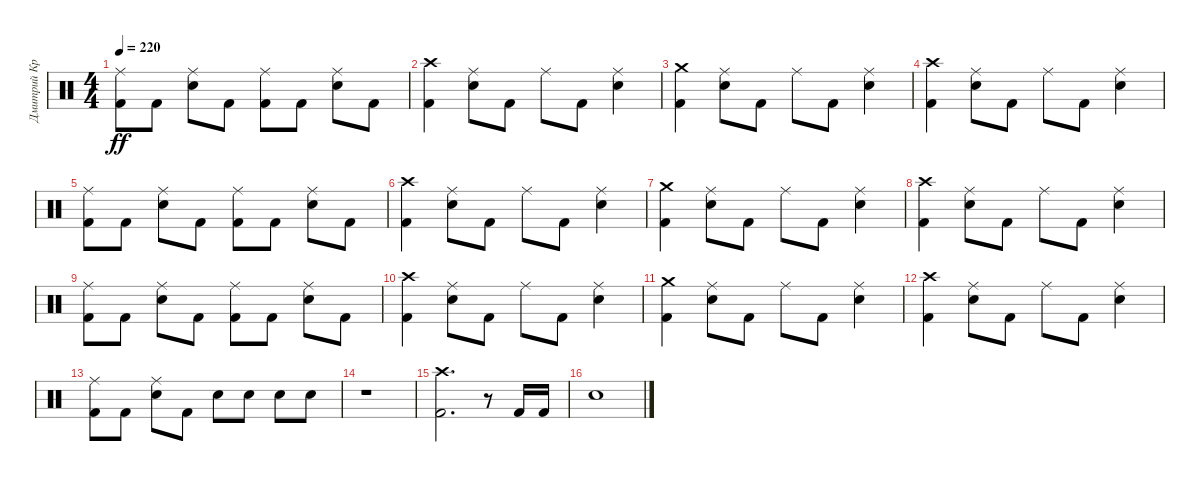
\track ("Дмитрий Кривенков" "Дмитрий Кр") {instrument percussion}
\staff {score}
\articulation defaults
\ts (4 4)
\tempo 220
\clef neutral
\ks c
("Ride (middle)" "Kick (hit) 2").8{dy ff} "Kick (hit) 2".8 ("Ride (middle)" "Snare (hit) 2").8 "Kick (hit) 2".8 ("Ride (middle)" "Kick (hit) 2").8 "Kick (hit) 2".8 ("Ride (middle)" "Snare (hit) 2").8 "Kick (hit) 2".8 |
("Kick (hit) 2" "Crash high (hit)").4 ("Ride (middle)" "Snare (hit) 2").8 "Kick (hit) 2".8 "Ride (middle)".8 "Kick (hit) 2".8 ("Ride (middle)" "Snare (hit) 2").4 |
("Crash medium (hit)" "Kick (hit) 2").4 ("Snare (hit) 2" "Ride (middle)").8 "Kick (hit) 2".8 "Ride (middle)".8 "Kick (hit) 2".8 ("Snare (hit) 2" "Ride (middle)").4 |
("Kick (hit) 2" "Crash high (hit)").4 ("Ride (middle)" "Snare (hit) 2").8 "Kick (hit) 2".8 "Ride (middle)".8 "Kick (hit) 2".8 ("Ride (middle)" "Snare (hit) 2").4 |
("Ride (middle)" "Kick (hit) 2").8 "Kick (hit) 2".8 ("Ride (middle)" "Snare (hit) 2").8 "Kick (hit) 2".8 ("Ride (middle)" "Kick (hit) 2").8 "Kick (hit) 2".8 ("Ride (middle)" "Snare (hit) 2").8 "Kick (hit) 2".8 |
("Kick (hit) 2" "Crash high (hit)").4 ("Ride (middle)" "Snare (hit) 2").8 "Kick (hit) 2".8 "Ride (middle)".8 "Kick (hit) 2".8 ("Ride (middle)" "Snare (hit) 2").4 |
("Crash medium (hit)" "Kick (hit) 2").4 ("Snare (hit) 2" "Ride (middle)").8 "Kick (hit) 2".8 "Ride (middle)".8 "Kick (hit) 2".8 ("Snare (hit) 2" "Ride (middle)").4 |
("Kick (hit) 2" "Crash high (hit)").4 ("Ride (middle)" "Snare (hit) 2").8 "Kick (hit) 2".8 "Ride (middle)".8 "Kick (hit) 2".8 ("Ride (middle)" "Snare (hit) 2").4 |
("Ride (middle)" "Kick (hit) 2").8 "Kick (hit) 2".8 ("Ride (middle)" "Snare (hit) 2").8 "Kick (hit) 2".8 ("Ride (middle)" "Kick (hit) 2").8 "Kick (hit) 2".8 ("Ride (middle)" "Snare (hit) 2").8 "Kick (hit) 2".8 |
("Kick (hit) 2" "Crash high (hit)").4 ("Ride (middle)" "Snare (hit) 2").8 "Kick (hit) 2".8 "Ride (middle)".8 "Kick (hit) 2".8 ("Ride (middle)" "Snare (hit) 2").4 |
("Crash medium (hit)" "Kick (hit) 2").4 ("Snare (hit) 2" "Ride (middle)").8 "Kick (hit) 2".8 "Ride (middle)".8 "Kick (hit) 2".8 ("Snare (hit) 2" "Ride (middle)").4 |
("Kick (hit) 2" "Crash high (hit)").4 ("Ride (middle)" "Snare (hit) 2").8 "Kick (hit) 2".8 "Ride (middle)".8 "Kick (hit) 2".8 ("Ride (middle)" "Snare (hit) 2").4 |
("Ride (middle)" "Kick (hit) 2").8 "Kick (hit) 2".8 ("Ride (middle)" "Snare (hit) 2").8 "Kick (hit) 2".8 "Snare (hit) 2".8 "Snare (hit) 2".8 "Snare (hit) 2".8 "Snare (hit) 2".8 |
r.1 |
("Crash high (hit)" "Kick (hit) 2").2{d} r.8 "Kick (hit) 2".16 "Kick (hit) 2".16 |
"Snare (hit) 2".1
